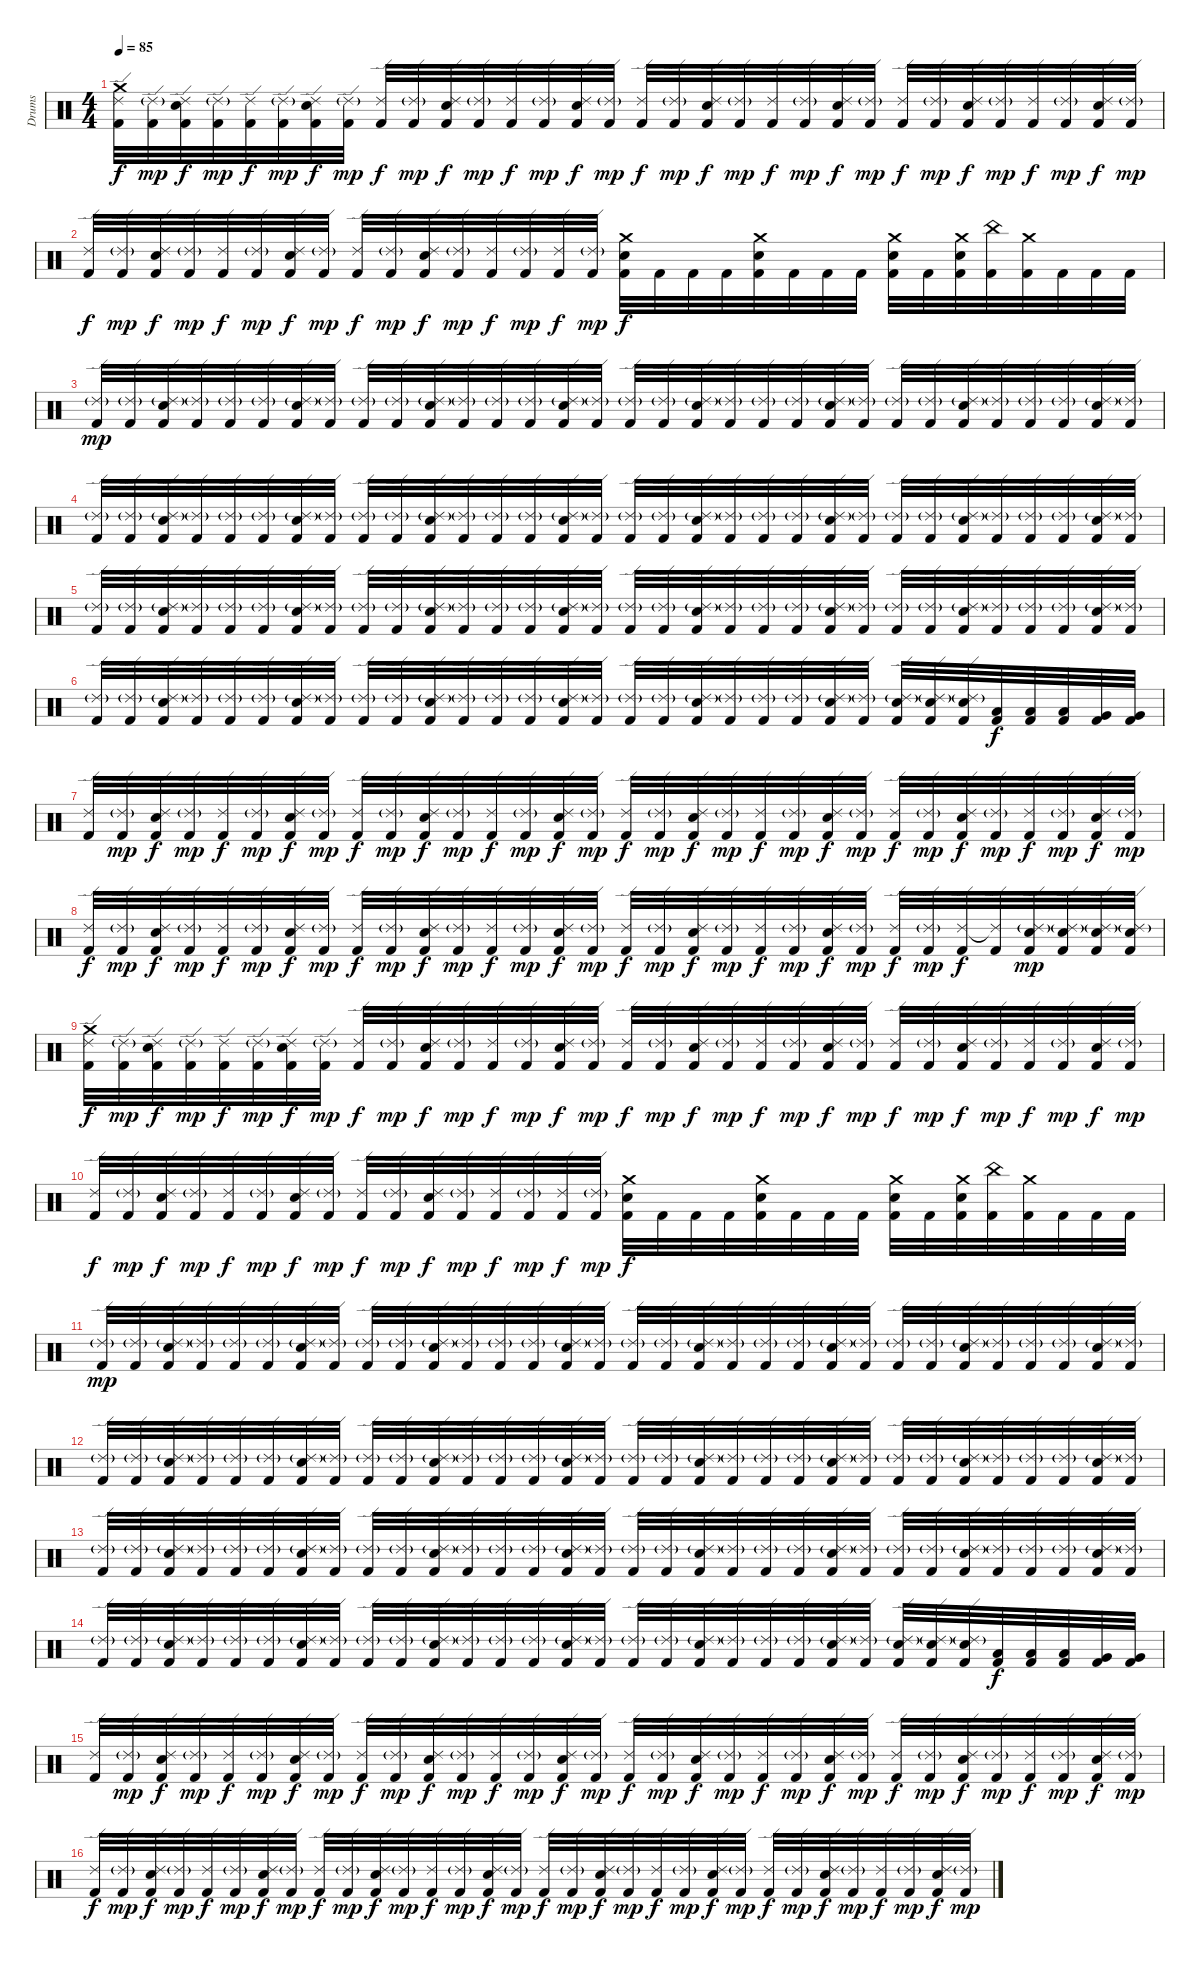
\track ("Drums" "Drums") {instrument percussion}
\staff {score}
\articulation defaults
\ts (4 4)
\tempo 85
\clef neutral
\ks c
("Crash medium (hit)" "Ride (edge) 2" "Kick (hit) 2").32{dy f} ("Ride (edge) 2"{g} "Kick (hit) 2").32{dy mp} ("Snare (hit) 2" "Ride (edge) 2" "Kick (hit) 2").32{dy f} ("Ride (edge) 2"{g} "Kick (hit) 2").32{dy mp} ("Ride (edge) 2" "Kick (hit) 2").32{dy f} ("Ride (edge) 2"{g} "Kick (hit) 2").32{dy mp} ("Snare (hit) 2" "Ride (edge) 2" "Kick (hit) 2").32{dy f} ("Ride (edge) 2"{g} "Kick (hit) 2").32{dy mp} ("Ride (edge) 2" "Kick (hit) 2").32{dy f} ("Ride (edge) 2"{g} "Kick (hit) 2").32{dy mp} ("Snare (hit) 2" "Ride (edge) 2" "Kick (hit) 2").32{dy f} ("Ride (edge) 2"{g} "Kick (hit) 2").32{dy mp} ("Ride (edge) 2" "Kick (hit) 2").32{dy f} ("Ride (edge) 2"{g} "Kick (hit) 2").32{dy mp} ("Snare (hit) 2" "Ride (edge) 2" "Kick (hit) 2").32{dy f} ("Ride (edge) 2"{g} "Kick (hit) 2").32{dy mp} ("Ride (edge) 2" "Kick (hit) 2").32{dy f} ("Ride (edge) 2"{g} "Kick (hit) 2").32{dy mp} ("Snare (hit) 2" "Ride (edge) 2" "Kick (hit) 2").32{dy f} ("Ride (edge) 2"{g} "Kick (hit) 2").32{dy mp} ("Ride (edge) 2" "Kick (hit) 2").32{dy f} ("Ride (edge) 2"{g} "Kick (hit) 2").32{dy mp} ("Snare (hit) 2" "Ride (edge) 2" "Kick (hit) 2").32{dy f} ("Ride (edge) 2"{g} "Kick (hit) 2").32{dy mp} ("Ride (edge) 2" "Kick (hit) 2").32{dy f} ("Ride (edge) 2"{g} "Kick (hit) 2").32{dy mp} ("Snare (hit) 2" "Ride (edge) 2" "Kick (hit) 2").32{dy f} ("Ride (edge) 2"{g} "Kick (hit) 2").32{dy mp} ("Ride (edge) 2" "Kick (hit) 2").32{dy f} ("Ride (edge) 2"{g} "Kick (hit) 2").32{dy mp} ("Snare (hit) 2" "Ride (edge) 2" "Kick (hit) 2").32{dy f} ("Ride (edge) 2"{g} "Kick (hit) 2").32{dy mp} |
("Ride (edge) 2" "Kick (hit) 2").32{dy f} ("Ride (edge) 2"{g} "Kick (hit) 2").32{dy mp} ("Snare (hit) 2" "Ride (edge) 2" "Kick (hit) 2").32{dy f} ("Ride (edge) 2"{g} "Kick (hit) 2").32{dy mp} ("Ride (edge) 2" "Kick (hit) 2").32{dy f} ("Ride (edge) 2"{g} "Kick (hit) 2").32{dy mp} ("Snare (hit) 2" "Ride (edge) 2" "Kick (hit) 2").32{dy f} ("Ride (edge) 2"{g} "Kick (hit) 2").32{dy mp} ("Ride (edge) 2" "Kick (hit) 2").32{dy f} ("Ride (edge) 2"{g} "Kick (hit) 2").32{dy mp} ("Snare (hit) 2" "Ride (edge) 2" "Kick (hit) 2").32{dy f} ("Ride (edge) 2"{g} "Kick (hit) 2").32{dy mp} ("Ride (edge) 2" "Kick (hit) 2").32{dy f} ("Ride (edge) 2"{g} "Kick (hit) 2").32{dy mp} ("Ride (edge) 2" "Kick (hit) 2").32{dy f} ("Ride (edge) 2"{g} "Kick (hit) 2").32{dy mp} ("Snare (hit) 2" "Crash medium (hit)" "Kick (hit) 2").32{dy f} "Kick (hit) 2".32 "Kick (hit) 2".32 "Kick (hit) 2".32 ("Snare (hit) 2" "Crash medium (hit)" "Kick (hit) 2").32 "Kick (hit) 2".32 "Kick (hit) 2".32 "Kick (hit) 2".32 ("Snare (hit) 2" "Crash medium (hit)" "Kick (hit) 2").32 "Kick (hit) 2".32 ("Snare (hit) 2" "Crash medium (hit)" "Kick (hit) 2").32 ("China (hit)" "Kick (hit) 2").32 ("Crash medium (hit)" "Kick (hit) 2").32 "Kick (hit) 2".32 "Kick (hit) 2".32 "Kick (hit) 2".32 |
("Ride (edge) 2"{g} "Kick (hit) 2").32{dy mp} ("Ride (edge) 2"{g} "Kick (hit) 2").32 ("Snare (hit) 2" "Ride (edge) 2"{g} "Kick (hit) 2").32 ("Ride (edge) 2"{g} "Kick (hit) 2").32 ("Ride (edge) 2"{g} "Kick (hit) 2").32 ("Ride (edge) 2"{g} "Kick (hit) 2").32 ("Snare (hit) 2" "Ride (edge) 2"{g} "Kick (hit) 2").32 ("Ride (edge) 2"{g} "Kick (hit) 2").32 ("Ride (edge) 2"{g} "Kick (hit) 2").32 ("Ride (edge) 2"{g} "Kick (hit) 2").32 ("Snare (hit) 2" "Ride (edge) 2"{g} "Kick (hit) 2").32 ("Ride (edge) 2"{g} "Kick (hit) 2").32 ("Ride (edge) 2"{g} "Kick (hit) 2").32 ("Ride (edge) 2"{g} "Kick (hit) 2").32 ("Snare (hit) 2" "Ride (edge) 2"{g} "Kick (hit) 2").32 ("Ride (edge) 2"{g} "Kick (hit) 2").32 ("Ride (edge) 2"{g} "Kick (hit) 2").32 ("Ride (edge) 2"{g} "Kick (hit) 2").32 ("Snare (hit) 2" "Ride (edge) 2"{g} "Kick (hit) 2").32 ("Ride (edge) 2"{g} "Kick (hit) 2").32 ("Ride (edge) 2"{g} "Kick (hit) 2").32 ("Ride (edge) 2"{g} "Kick (hit) 2").32 ("Snare (hit) 2" "Ride (edge) 2"{g} "Kick (hit) 2").32 ("Ride (edge) 2"{g} "Kick (hit) 2").32 ("Ride (edge) 2"{g} "Kick (hit) 2").32 ("Ride (edge) 2"{g} "Kick (hit) 2").32 ("Snare (hit) 2" "Ride (edge) 2"{g} "Kick (hit) 2").32 ("Ride (edge) 2"{g} "Kick (hit) 2").32 ("Ride (edge) 2"{g} "Kick (hit) 2").32 ("Ride (edge) 2"{g} "Kick (hit) 2").32 ("Snare (hit) 2" "Ride (edge) 2"{g} "Kick (hit) 2").32 ("Ride (edge) 2"{g} "Kick (hit) 2").32 |
("Ride (edge) 2"{g} "Kick (hit) 2").32 ("Ride (edge) 2"{g} "Kick (hit) 2").32 ("Snare (hit) 2" "Ride (edge) 2"{g} "Kick (hit) 2").32 ("Ride (edge) 2"{g} "Kick (hit) 2").32 ("Ride (edge) 2"{g} "Kick (hit) 2").32 ("Ride (edge) 2"{g} "Kick (hit) 2").32 ("Snare (hit) 2" "Ride (edge) 2"{g} "Kick (hit) 2").32 ("Ride (edge) 2"{g} "Kick (hit) 2").32 ("Ride (edge) 2"{g} "Kick (hit) 2").32 ("Ride (edge) 2"{g} "Kick (hit) 2").32 ("Snare (hit) 2" "Ride (edge) 2"{g} "Kick (hit) 2").32 ("Ride (edge) 2"{g} "Kick (hit) 2").32 ("Ride (edge) 2"{g} "Kick (hit) 2").32 ("Ride (edge) 2"{g} "Kick (hit) 2").32 ("Snare (hit) 2" "Ride (edge) 2"{g} "Kick (hit) 2").32 ("Ride (edge) 2"{g} "Kick (hit) 2").32 ("Ride (edge) 2"{g} "Kick (hit) 2").32 ("Ride (edge) 2"{g} "Kick (hit) 2").32 ("Snare (hit) 2" "Ride (edge) 2"{g} "Kick (hit) 2").32 ("Ride (edge) 2"{g} "Kick (hit) 2").32 ("Ride (edge) 2"{g} "Kick (hit) 2").32 ("Ride (edge) 2"{g} "Kick (hit) 2").32 ("Snare (hit) 2" "Ride (edge) 2"{g} "Kick (hit) 2").32 ("Ride (edge) 2"{g} "Kick (hit) 2").32 ("Ride (edge) 2"{g} "Kick (hit) 2").32 ("Ride (edge) 2"{g} "Kick (hit) 2").32 ("Snare (hit) 2" "Ride (edge) 2"{g} "Kick (hit) 2").32 ("Ride (edge) 2"{g} "Kick (hit) 2").32 ("Ride (edge) 2"{g} "Kick (hit) 2").32 ("Ride (edge) 2"{g} "Kick (hit) 2").32 ("Snare (hit) 2" "Ride (edge) 2"{g} "Kick (hit) 2").32 ("Ride (edge) 2"{g} "Kick (hit) 2").32 |
("Ride (edge) 2"{g} "Kick (hit) 2").32 ("Ride (edge) 2"{g} "Kick (hit) 2").32 ("Snare (hit) 2" "Ride (edge) 2"{g} "Kick (hit) 2").32 ("Ride (edge) 2"{g} "Kick (hit) 2").32 ("Ride (edge) 2"{g} "Kick (hit) 2").32 ("Ride (edge) 2"{g} "Kick (hit) 2").32 ("Snare (hit) 2" "Ride (edge) 2"{g} "Kick (hit) 2").32 ("Ride (edge) 2"{g} "Kick (hit) 2").32 ("Ride (edge) 2"{g} "Kick (hit) 2").32 ("Ride (edge) 2"{g} "Kick (hit) 2").32 ("Snare (hit) 2" "Ride (edge) 2"{g} "Kick (hit) 2").32 ("Ride (edge) 2"{g} "Kick (hit) 2").32 ("Ride (edge) 2"{g} "Kick (hit) 2").32 ("Ride (edge) 2"{g} "Kick (hit) 2").32 ("Snare (hit) 2" "Ride (edge) 2"{g} "Kick (hit) 2").32 ("Ride (edge) 2"{g} "Kick (hit) 2").32 ("Ride (edge) 2"{g} "Kick (hit) 2").32 ("Ride (edge) 2"{g} "Kick (hit) 2").32 ("Snare (hit) 2" "Ride (edge) 2"{g} "Kick (hit) 2").32 ("Ride (edge) 2"{g} "Kick (hit) 2").32 ("Ride (edge) 2"{g} "Kick (hit) 2").32 ("Ride (edge) 2"{g} "Kick (hit) 2").32 ("Snare (hit) 2" "Ride (edge) 2"{g} "Kick (hit) 2").32 ("Ride (edge) 2"{g} "Kick (hit) 2").32 ("Ride (edge) 2"{g} "Kick (hit) 2").32 ("Ride (edge) 2"{g} "Kick (hit) 2").32 ("Snare (hit) 2" "Ride (edge) 2"{g} "Kick (hit) 2").32 ("Ride (edge) 2"{g} "Kick (hit) 2").32 ("Ride (edge) 2"{g} "Kick (hit) 2").32 ("Ride (edge) 2"{g} "Kick (hit) 2").32 ("Snare (hit) 2" "Ride (edge) 2"{g} "Kick (hit) 2").32 ("Ride (edge) 2"{g} "Kick (hit) 2").32 |
("Ride (edge) 2"{g} "Kick (hit) 2").32 ("Ride (edge) 2"{g} "Kick (hit) 2").32 ("Snare (hit) 2" "Ride (edge) 2"{g} "Kick (hit) 2").32 ("Ride (edge) 2"{g} "Kick (hit) 2").32 ("Ride (edge) 2"{g} "Kick (hit) 2").32 ("Ride (edge) 2"{g} "Kick (hit) 2").32 ("Snare (hit) 2" "Ride (edge) 2"{g} "Kick (hit) 2").32 ("Ride (edge) 2"{g} "Kick (hit) 2").32 ("Ride (edge) 2"{g} "Kick (hit) 2").32 ("Ride (edge) 2"{g} "Kick (hit) 2").32 ("Snare (hit) 2" "Ride (edge) 2"{g} "Kick (hit) 2").32 ("Ride (edge) 2"{g} "Kick (hit) 2").32 ("Ride (edge) 2"{g} "Kick (hit) 2").32 ("Ride (edge) 2"{g} "Kick (hit) 2").32 ("Snare (hit) 2" "Ride (edge) 2"{g} "Kick (hit) 2").32 ("Ride (edge) 2"{g} "Kick (hit) 2").32 ("Ride (edge) 2"{g} "Kick (hit) 2").32 ("Ride (edge) 2"{g} "Kick (hit) 2").32 ("Snare (hit) 2" "Ride (edge) 2"{g} "Kick (hit) 2").32 ("Ride (edge) 2"{g} "Kick (hit) 2").32 ("Ride (edge) 2"{g} "Kick (hit) 2").32 ("Ride (edge) 2"{g} "Kick (hit) 2").32 ("Snare (hit) 2" "Ride (edge) 2"{g} "Kick (hit) 2").32 ("Ride (edge) 2"{g} "Kick (hit) 2").32 ("Snare (hit) 2" "Ride (edge) 2"{g} "Kick (hit) 2").32 ("Snare (hit) 2" "Ride (edge) 2"{g} "Kick (hit) 2").32 ("Snare (hit) 2" "Ride (edge) 2"{g} "Kick (hit) 2").32 ("Low Tom (hit)" "Kick (hit) 2").32{dy f} ("Low Tom (hit)" "Kick (hit) 2").32 ("Low Tom (hit)" "Kick (hit) 2").32 ("Very Low Tom (hit)" "Kick (hit) 2").32 ("Very Low Tom (hit)" "Kick (hit) 2").32 |
("Ride (edge) 2" "Kick (hit) 2").32 ("Ride (edge) 2"{g} "Kick (hit) 2").32{dy mp} ("Snare (hit) 2" "Ride (edge) 2" "Kick (hit) 2").32{dy f} ("Ride (edge) 2"{g} "Kick (hit) 2").32{dy mp} ("Ride (edge) 2" "Kick (hit) 2").32{dy f} ("Ride (edge) 2"{g} "Kick (hit) 2").32{dy mp} ("Snare (hit) 2" "Ride (edge) 2" "Kick (hit) 2").32{dy f} ("Ride (edge) 2"{g} "Kick (hit) 2").32{dy mp} ("Ride (edge) 2" "Kick (hit) 2").32{dy f} ("Ride (edge) 2"{g} "Kick (hit) 2").32{dy mp} ("Snare (hit) 2" "Ride (edge) 2" "Kick (hit) 2").32{dy f} ("Ride (edge) 2"{g} "Kick (hit) 2").32{dy mp} ("Ride (edge) 2" "Kick (hit) 2").32{dy f} ("Ride (edge) 2"{g} "Kick (hit) 2").32{dy mp} ("Snare (hit) 2" "Ride (edge) 2" "Kick (hit) 2").32{dy f} ("Ride (edge) 2"{g} "Kick (hit) 2").32{dy mp} ("Ride (edge) 2" "Kick (hit) 2").32{dy f} ("Ride (edge) 2"{g} "Kick (hit) 2").32{dy mp} ("Snare (hit) 2" "Ride (edge) 2" "Kick (hit) 2").32{dy f} ("Ride (edge) 2"{g} "Kick (hit) 2").32{dy mp} ("Ride (edge) 2" "Kick (hit) 2").32{dy f} ("Ride (edge) 2"{g} "Kick (hit) 2").32{dy mp} ("Snare (hit) 2" "Ride (edge) 2" "Kick (hit) 2").32{dy f} ("Ride (edge) 2"{g} "Kick (hit) 2").32{dy mp} ("Ride (edge) 2" "Kick (hit) 2").32{dy f} ("Ride (edge) 2"{g} "Kick (hit) 2").32{dy mp} ("Snare (hit) 2" "Ride (edge) 2" "Kick (hit) 2").32{dy f} ("Ride (edge) 2"{g} "Kick (hit) 2").32{dy mp} ("Ride (edge) 2" "Kick (hit) 2").32{dy f} ("Ride (edge) 2"{g} "Kick (hit) 2").32{dy mp} ("Snare (hit) 2" "Ride (edge) 2" "Kick (hit) 2").32{dy f} ("Ride (edge) 2"{g} "Kick (hit) 2").32{dy mp} |
("Ride (edge) 2" "Kick (hit) 2").32{dy f} ("Ride (edge) 2"{g} "Kick (hit) 2").32{dy mp} ("Snare (hit) 2" "Ride (edge) 2" "Kick (hit) 2").32{dy f} ("Ride (edge) 2"{g} "Kick (hit) 2").32{dy mp} ("Ride (edge) 2" "Kick (hit) 2").32{dy f} ("Ride (edge) 2"{g} "Kick (hit) 2").32{dy mp} ("Snare (hit) 2" "Ride (edge) 2" "Kick (hit) 2").32{dy f} ("Ride (edge) 2"{g} "Kick (hit) 2").32{dy mp} ("Ride (edge) 2" "Kick (hit) 2").32{dy f} ("Ride (edge) 2"{g} "Kick (hit) 2").32{dy mp} ("Snare (hit) 2" "Ride (edge) 2" "Kick (hit) 2").32{dy f} ("Ride (edge) 2"{g} "Kick (hit) 2").32{dy mp} ("Ride (edge) 2" "Kick (hit) 2").32{dy f} ("Ride (edge) 2"{g} "Kick (hit) 2").32{dy mp} ("Snare (hit) 2" "Ride (edge) 2" "Kick (hit) 2").32{dy f} ("Ride (edge) 2"{g} "Kick (hit) 2").32{dy mp} ("Ride (edge) 2" "Kick (hit) 2").32{dy f} ("Ride (edge) 2"{g} "Kick (hit) 2").32{dy mp} ("Snare (hit) 2" "Ride (edge) 2" "Kick (hit) 2").32{dy f} ("Ride (edge) 2"{g} "Kick (hit) 2").32{dy mp} ("Ride (edge) 2" "Kick (hit) 2").32{dy f} ("Ride (edge) 2"{g} "Kick (hit) 2").32{dy mp} ("Snare (hit) 2" "Ride (edge) 2" "Kick (hit) 2").32{dy f} ("Ride (edge) 2"{g} "Kick (hit) 2").32{dy mp} ("Ride (edge) 2" "Kick (hit) 2").32{dy f} ("Ride (edge) 2"{g} "Kick (hit) 2").32{dy mp} ("Ride (edge) 2" "Kick (hit) 2").32{dy f} ("Ride (edge) 2"{t} "Kick (hit) 2").32 ("Snare (hit) 2" "Ride (edge) 2"{g} "Kick (hit) 2").32{dy mp} ("Snare (hit) 2" "Ride (edge) 2"{g} "Kick (hit) 2").32 ("Snare (hit) 2" "Ride (edge) 2"{g} "Kick (hit) 2").32 ("Snare (hit) 2" "Ride (edge) 2"{g} "Kick (hit) 2").32 |
("Crash medium (hit)" "Ride (edge) 2" "Kick (hit) 2").32{dy f} ("Ride (edge) 2"{g} "Kick (hit) 2").32{dy mp} ("Snare (hit) 2" "Ride (edge) 2" "Kick (hit) 2").32{dy f} ("Ride (edge) 2"{g} "Kick (hit) 2").32{dy mp} ("Ride (edge) 2" "Kick (hit) 2").32{dy f} ("Ride (edge) 2"{g} "Kick (hit) 2").32{dy mp} ("Snare (hit) 2" "Ride (edge) 2" "Kick (hit) 2").32{dy f} ("Ride (edge) 2"{g} "Kick (hit) 2").32{dy mp} ("Ride (edge) 2" "Kick (hit) 2").32{dy f} ("Ride (edge) 2"{g} "Kick (hit) 2").32{dy mp} ("Snare (hit) 2" "Ride (edge) 2" "Kick (hit) 2").32{dy f} ("Ride (edge) 2"{g} "Kick (hit) 2").32{dy mp} ("Ride (edge) 2" "Kick (hit) 2").32{dy f} ("Ride (edge) 2"{g} "Kick (hit) 2").32{dy mp} ("Snare (hit) 2" "Ride (edge) 2" "Kick (hit) 2").32{dy f} ("Ride (edge) 2"{g} "Kick (hit) 2").32{dy mp} ("Ride (edge) 2" "Kick (hit) 2").32{dy f} ("Ride (edge) 2"{g} "Kick (hit) 2").32{dy mp} ("Snare (hit) 2" "Ride (edge) 2" "Kick (hit) 2").32{dy f} ("Ride (edge) 2"{g} "Kick (hit) 2").32{dy mp} ("Ride (edge) 2" "Kick (hit) 2").32{dy f} ("Ride (edge) 2"{g} "Kick (hit) 2").32{dy mp} ("Snare (hit) 2" "Ride (edge) 2" "Kick (hit) 2").32{dy f} ("Ride (edge) 2"{g} "Kick (hit) 2").32{dy mp} ("Ride (edge) 2" "Kick (hit) 2").32{dy f} ("Ride (edge) 2"{g} "Kick (hit) 2").32{dy mp} ("Snare (hit) 2" "Ride (edge) 2" "Kick (hit) 2").32{dy f} ("Ride (edge) 2"{g} "Kick (hit) 2").32{dy mp} ("Ride (edge) 2" "Kick (hit) 2").32{dy f} ("Ride (edge) 2"{g} "Kick (hit) 2").32{dy mp} ("Snare (hit) 2" "Ride (edge) 2" "Kick (hit) 2").32{dy f} ("Ride (edge) 2"{g} "Kick (hit) 2").32{dy mp} |
("Ride (edge) 2" "Kick (hit) 2").32{dy f} ("Ride (edge) 2"{g} "Kick (hit) 2").32{dy mp} ("Snare (hit) 2" "Ride (edge) 2" "Kick (hit) 2").32{dy f} ("Ride (edge) 2"{g} "Kick (hit) 2").32{dy mp} ("Ride (edge) 2" "Kick (hit) 2").32{dy f} ("Ride (edge) 2"{g} "Kick (hit) 2").32{dy mp} ("Snare (hit) 2" "Ride (edge) 2" "Kick (hit) 2").32{dy f} ("Ride (edge) 2"{g} "Kick (hit) 2").32{dy mp} ("Ride (edge) 2" "Kick (hit) 2").32{dy f} ("Ride (edge) 2"{g} "Kick (hit) 2").32{dy mp} ("Snare (hit) 2" "Ride (edge) 2" "Kick (hit) 2").32{dy f} ("Ride (edge) 2"{g} "Kick (hit) 2").32{dy mp} ("Ride (edge) 2" "Kick (hit) 2").32{dy f} ("Ride (edge) 2"{g} "Kick (hit) 2").32{dy mp} ("Ride (edge) 2" "Kick (hit) 2").32{dy f} ("Ride (edge) 2"{g} "Kick (hit) 2").32{dy mp} ("Snare (hit) 2" "Crash medium (hit)" "Kick (hit) 2").32{dy f} "Kick (hit) 2".32 "Kick (hit) 2".32 "Kick (hit) 2".32 ("Snare (hit) 2" "Crash medium (hit)" "Kick (hit) 2").32 "Kick (hit) 2".32 "Kick (hit) 2".32 "Kick (hit) 2".32 ("Snare (hit) 2" "Crash medium (hit)" "Kick (hit) 2").32 "Kick (hit) 2".32 ("Snare (hit) 2" "Crash medium (hit)" "Kick (hit) 2").32 ("China (hit)" "Kick (hit) 2").32 ("Crash medium (hit)" "Kick (hit) 2").32 "Kick (hit) 2".32 "Kick (hit) 2".32 "Kick (hit) 2".32 |
("Ride (edge) 2"{g} "Kick (hit) 2").32{dy mp} ("Ride (edge) 2"{g} "Kick (hit) 2").32 ("Snare (hit) 2" "Ride (edge) 2"{g} "Kick (hit) 2").32 ("Ride (edge) 2"{g} "Kick (hit) 2").32 ("Ride (edge) 2"{g} "Kick (hit) 2").32 ("Ride (edge) 2"{g} "Kick (hit) 2").32 ("Snare (hit) 2" "Ride (edge) 2"{g} "Kick (hit) 2").32 ("Ride (edge) 2"{g} "Kick (hit) 2").32 ("Ride (edge) 2"{g} "Kick (hit) 2").32 ("Ride (edge) 2"{g} "Kick (hit) 2").32 ("Snare (hit) 2" "Ride (edge) 2"{g} "Kick (hit) 2").32 ("Ride (edge) 2"{g} "Kick (hit) 2").32 ("Ride (edge) 2"{g} "Kick (hit) 2").32 ("Ride (edge) 2"{g} "Kick (hit) 2").32 ("Snare (hit) 2" "Ride (edge) 2"{g} "Kick (hit) 2").32 ("Ride (edge) 2"{g} "Kick (hit) 2").32 ("Ride (edge) 2"{g} "Kick (hit) 2").32 ("Ride (edge) 2"{g} "Kick (hit) 2").32 ("Snare (hit) 2" "Ride (edge) 2"{g} "Kick (hit) 2").32 ("Ride (edge) 2"{g} "Kick (hit) 2").32 ("Ride (edge) 2"{g} "Kick (hit) 2").32 ("Ride (edge) 2"{g} "Kick (hit) 2").32 ("Snare (hit) 2" "Ride (edge) 2"{g} "Kick (hit) 2").32 ("Ride (edge) 2"{g} "Kick (hit) 2").32 ("Ride (edge) 2"{g} "Kick (hit) 2").32 ("Ride (edge) 2"{g} "Kick (hit) 2").32 ("Snare (hit) 2" "Ride (edge) 2"{g} "Kick (hit) 2").32 ("Ride (edge) 2"{g} "Kick (hit) 2").32 ("Ride (edge) 2"{g} "Kick (hit) 2").32 ("Ride (edge) 2"{g} "Kick (hit) 2").32 ("Snare (hit) 2" "Ride (edge) 2"{g} "Kick (hit) 2").32 ("Ride (edge) 2"{g} "Kick (hit) 2").32 |
("Ride (edge) 2"{g} "Kick (hit) 2").32 ("Ride (edge) 2"{g} "Kick (hit) 2").32 ("Snare (hit) 2" "Ride (edge) 2"{g} "Kick (hit) 2").32 ("Ride (edge) 2"{g} "Kick (hit) 2").32 ("Ride (edge) 2"{g} "Kick (hit) 2").32 ("Ride (edge) 2"{g} "Kick (hit) 2").32 ("Snare (hit) 2" "Ride (edge) 2"{g} "Kick (hit) 2").32 ("Ride (edge) 2"{g} "Kick (hit) 2").32 ("Ride (edge) 2"{g} "Kick (hit) 2").32 ("Ride (edge) 2"{g} "Kick (hit) 2").32 ("Snare (hit) 2" "Ride (edge) 2"{g} "Kick (hit) 2").32 ("Ride (edge) 2"{g} "Kick (hit) 2").32 ("Ride (edge) 2"{g} "Kick (hit) 2").32 ("Ride (edge) 2"{g} "Kick (hit) 2").32 ("Snare (hit) 2" "Ride (edge) 2"{g} "Kick (hit) 2").32 ("Ride (edge) 2"{g} "Kick (hit) 2").32 ("Ride (edge) 2"{g} "Kick (hit) 2").32 ("Ride (edge) 2"{g} "Kick (hit) 2").32 ("Snare (hit) 2" "Ride (edge) 2"{g} "Kick (hit) 2").32 ("Ride (edge) 2"{g} "Kick (hit) 2").32 ("Ride (edge) 2"{g} "Kick (hit) 2").32 ("Ride (edge) 2"{g} "Kick (hit) 2").32 ("Snare (hit) 2" "Ride (edge) 2"{g} "Kick (hit) 2").32 ("Ride (edge) 2"{g} "Kick (hit) 2").32 ("Ride (edge) 2"{g} "Kick (hit) 2").32 ("Ride (edge) 2"{g} "Kick (hit) 2").32 ("Snare (hit) 2" "Ride (edge) 2"{g} "Kick (hit) 2").32 ("Ride (edge) 2"{g} "Kick (hit) 2").32 ("Ride (edge) 2"{g} "Kick (hit) 2").32 ("Ride (edge) 2"{g} "Kick (hit) 2").32 ("Snare (hit) 2" "Ride (edge) 2"{g} "Kick (hit) 2").32 ("Ride (edge) 2"{g} "Kick (hit) 2").32 |
("Ride (edge) 2"{g} "Kick (hit) 2").32 ("Ride (edge) 2"{g} "Kick (hit) 2").32 ("Snare (hit) 2" "Ride (edge) 2"{g} "Kick (hit) 2").32 ("Ride (edge) 2"{g} "Kick (hit) 2").32 ("Ride (edge) 2"{g} "Kick (hit) 2").32 ("Ride (edge) 2"{g} "Kick (hit) 2").32 ("Snare (hit) 2" "Ride (edge) 2"{g} "Kick (hit) 2").32 ("Ride (edge) 2"{g} "Kick (hit) 2").32 ("Ride (edge) 2"{g} "Kick (hit) 2").32 ("Ride (edge) 2"{g} "Kick (hit) 2").32 ("Snare (hit) 2" "Ride (edge) 2"{g} "Kick (hit) 2").32 ("Ride (edge) 2"{g} "Kick (hit) 2").32 ("Ride (edge) 2"{g} "Kick (hit) 2").32 ("Ride (edge) 2"{g} "Kick (hit) 2").32 ("Snare (hit) 2" "Ride (edge) 2"{g} "Kick (hit) 2").32 ("Ride (edge) 2"{g} "Kick (hit) 2").32 ("Ride (edge) 2"{g} "Kick (hit) 2").32 ("Ride (edge) 2"{g} "Kick (hit) 2").32 ("Snare (hit) 2" "Ride (edge) 2"{g} "Kick (hit) 2").32 ("Ride (edge) 2"{g} "Kick (hit) 2").32 ("Ride (edge) 2"{g} "Kick (hit) 2").32 ("Ride (edge) 2"{g} "Kick (hit) 2").32 ("Snare (hit) 2" "Ride (edge) 2"{g} "Kick (hit) 2").32 ("Ride (edge) 2"{g} "Kick (hit) 2").32 ("Ride (edge) 2"{g} "Kick (hit) 2").32 ("Ride (edge) 2"{g} "Kick (hit) 2").32 ("Snare (hit) 2" "Ride (edge) 2"{g} "Kick (hit) 2").32 ("Ride (edge) 2"{g} "Kick (hit) 2").32 ("Ride (edge) 2"{g} "Kick (hit) 2").32 ("Ride (edge) 2"{g} "Kick (hit) 2").32 ("Snare (hit) 2" "Ride (edge) 2"{g} "Kick (hit) 2").32 ("Ride (edge) 2"{g} "Kick (hit) 2").32 |
("Ride (edge) 2"{g} "Kick (hit) 2").32 ("Ride (edge) 2"{g} "Kick (hit) 2").32 ("Snare (hit) 2" "Ride (edge) 2"{g} "Kick (hit) 2").32 ("Ride (edge) 2"{g} "Kick (hit) 2").32 ("Ride (edge) 2"{g} "Kick (hit) 2").32 ("Ride (edge) 2"{g} "Kick (hit) 2").32 ("Snare (hit) 2" "Ride (edge) 2"{g} "Kick (hit) 2").32 ("Ride (edge) 2"{g} "Kick (hit) 2").32 ("Ride (edge) 2"{g} "Kick (hit) 2").32 ("Ride (edge) 2"{g} "Kick (hit) 2").32 ("Snare (hit) 2" "Ride (edge) 2"{g} "Kick (hit) 2").32 ("Ride (edge) 2"{g} "Kick (hit) 2").32 ("Ride (edge) 2"{g} "Kick (hit) 2").32 ("Ride (edge) 2"{g} "Kick (hit) 2").32 ("Snare (hit) 2" "Ride (edge) 2"{g} "Kick (hit) 2").32 ("Ride (edge) 2"{g} "Kick (hit) 2").32 ("Ride (edge) 2"{g} "Kick (hit) 2").32 ("Ride (edge) 2"{g} "Kick (hit) 2").32 ("Snare (hit) 2" "Ride (edge) 2"{g} "Kick (hit) 2").32 ("Ride (edge) 2"{g} "Kick (hit) 2").32 ("Ride (edge) 2"{g} "Kick (hit) 2").32 ("Ride (edge) 2"{g} "Kick (hit) 2").32 ("Snare (hit) 2" "Ride (edge) 2"{g} "Kick (hit) 2").32 ("Ride (edge) 2"{g} "Kick (hit) 2").32 ("Snare (hit) 2" "Ride (edge) 2"{g} "Kick (hit) 2").32 ("Snare (hit) 2" "Ride (edge) 2"{g} "Kick (hit) 2").32 ("Snare (hit) 2" "Ride (edge) 2"{g} "Kick (hit) 2").32 ("Low Tom (hit)" "Kick (hit) 2").32{dy f} ("Low Tom (hit)" "Kick (hit) 2").32 ("Low Tom (hit)" "Kick (hit) 2").32 ("Very Low Tom (hit)" "Kick (hit) 2").32 ("Very Low Tom (hit)" "Kick (hit) 2").32 |
("Ride (edge) 2" "Kick (hit) 2").32 ("Ride (edge) 2"{g} "Kick (hit) 2").32{dy mp} ("Snare (hit) 2" "Ride (edge) 2" "Kick (hit) 2").32{dy f} ("Ride (edge) 2"{g} "Kick (hit) 2").32{dy mp} ("Ride (edge) 2" "Kick (hit) 2").32{dy f} ("Ride (edge) 2"{g} "Kick (hit) 2").32{dy mp} ("Snare (hit) 2" "Ride (edge) 2" "Kick (hit) 2").32{dy f} ("Ride (edge) 2"{g} "Kick (hit) 2").32{dy mp} ("Ride (edge) 2" "Kick (hit) 2").32{dy f} ("Ride (edge) 2"{g} "Kick (hit) 2").32{dy mp} ("Snare (hit) 2" "Ride (edge) 2" "Kick (hit) 2").32{dy f} ("Ride (edge) 2"{g} "Kick (hit) 2").32{dy mp} ("Ride (edge) 2" "Kick (hit) 2").32{dy f} ("Ride (edge) 2"{g} "Kick (hit) 2").32{dy mp} ("Snare (hit) 2" "Ride (edge) 2" "Kick (hit) 2").32{dy f} ("Ride (edge) 2"{g} "Kick (hit) 2").32{dy mp} ("Ride (edge) 2" "Kick (hit) 2").32{dy f} ("Ride (edge) 2"{g} "Kick (hit) 2").32{dy mp} ("Snare (hit) 2" "Ride (edge) 2" "Kick (hit) 2").32{dy f} ("Ride (edge) 2"{g} "Kick (hit) 2").32{dy mp} ("Ride (edge) 2" "Kick (hit) 2").32{dy f} ("Ride (edge) 2"{g} "Kick (hit) 2").32{dy mp} ("Snare (hit) 2" "Ride (edge) 2" "Kick (hit) 2").32{dy f} ("Ride (edge) 2"{g} "Kick (hit) 2").32{dy mp} ("Ride (edge) 2" "Kick (hit) 2").32{dy f} ("Ride (edge) 2"{g} "Kick (hit) 2").32{dy mp} ("Snare (hit) 2" "Ride (edge) 2" "Kick (hit) 2").32{dy f} ("Ride (edge) 2"{g} "Kick (hit) 2").32{dy mp} ("Ride (edge) 2" "Kick (hit) 2").32{dy f} ("Ride (edge) 2"{g} "Kick (hit) 2").32{dy mp} ("Snare (hit) 2" "Ride (edge) 2" "Kick (hit) 2").32{dy f} ("Ride (edge) 2"{g} "Kick (hit) 2").32{dy mp} |
("Ride (edge) 2" "Kick (hit) 2").32{dy f} ("Ride (edge) 2"{g} "Kick (hit) 2").32{dy mp} ("Snare (hit) 2" "Ride (edge) 2" "Kick (hit) 2").32{dy f} ("Ride (edge) 2"{g} "Kick (hit) 2").32{dy mp} ("Ride (edge) 2" "Kick (hit) 2").32{dy f} ("Ride (edge) 2"{g} "Kick (hit) 2").32{dy mp} ("Snare (hit) 2" "Ride (edge) 2" "Kick (hit) 2").32{dy f} ("Ride (edge) 2"{g} "Kick (hit) 2").32{dy mp} ("Ride (edge) 2" "Kick (hit) 2").32{dy f} ("Ride (edge) 2"{g} "Kick (hit) 2").32{dy mp} ("Snare (hit) 2" "Ride (edge) 2" "Kick (hit) 2").32{dy f} ("Ride (edge) 2"{g} "Kick (hit) 2").32{dy mp} ("Ride (edge) 2" "Kick (hit) 2").32{dy f} ("Ride (edge) 2"{g} "Kick (hit) 2").32{dy mp} ("Snare (hit) 2" "Ride (edge) 2" "Kick (hit) 2").32{dy f} ("Ride (edge) 2"{g} "Kick (hit) 2").32{dy mp} ("Ride (edge) 2" "Kick (hit) 2").32{dy f} ("Ride (edge) 2"{g} "Kick (hit) 2").32{dy mp} ("Snare (hit) 2" "Ride (edge) 2" "Kick (hit) 2").32{dy f} ("Ride (edge) 2"{g} "Kick (hit) 2").32{dy mp} ("Ride (edge) 2" "Kick (hit) 2").32{dy f} ("Ride (edge) 2"{g} "Kick (hit) 2").32{dy mp} ("Snare (hit) 2" "Ride (edge) 2" "Kick (hit) 2").32{dy f} ("Ride (edge) 2"{g} "Kick (hit) 2").32{dy mp} ("Ride (edge) 2" "Kick (hit) 2").32{dy f} ("Ride (edge) 2"{g} "Kick (hit) 2").32{dy mp} ("Snare (hit) 2" "Ride (edge) 2" "Kick (hit) 2").32{dy f} ("Ride (edge) 2"{g} "Kick (hit) 2").32{dy mp} ("Ride (edge) 2" "Kick (hit) 2").32{dy f} ("Ride (edge) 2"{g} "Kick (hit) 2").32{dy mp} ("Snare (hit) 2" "Ride (edge) 2" "Kick (hit) 2").32{dy f} ("Ride (edge) 2"{g} "Kick (hit) 2").32{dy mp}
